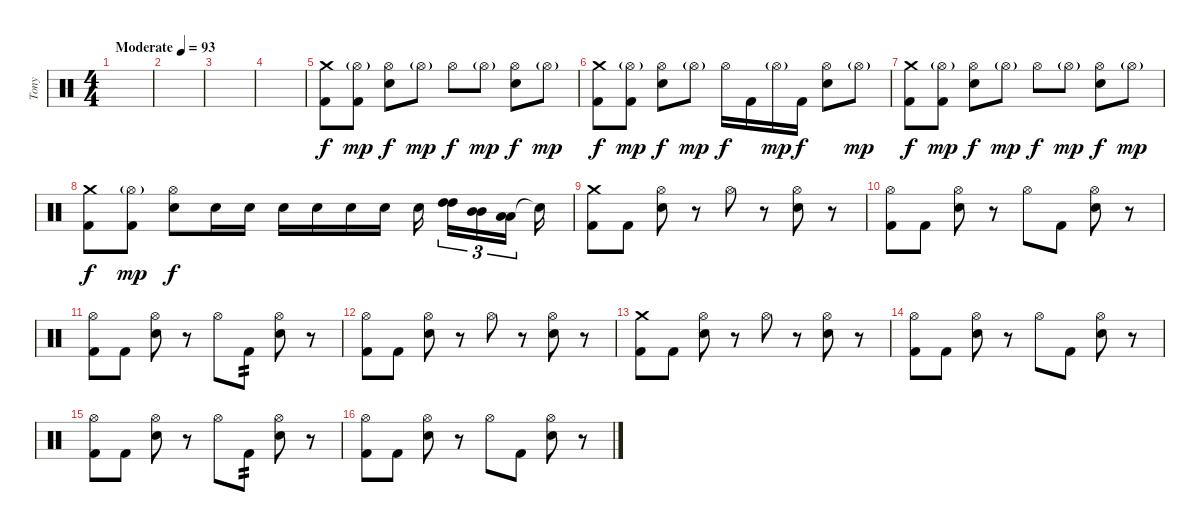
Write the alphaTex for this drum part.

\track ("Tony" "Tony") {instrument percussion}
\staff {score}
\articulation defaults
\ts (4 4)
\tempo (93 "Moderate")
\clef neutral
\ks c
|
|
|
|
("Crash medium (hit)" "Kick (hit) 2").8 ("Hi-Hat (open)"{g} "Kick (hit) 2").8{dy mp} ("Hi-Hat (open)" "Electric Snare (hit)").8{dy f} "Hi-Hat (open)"{g}.8{dy mp} "Hi-Hat (open)".8{dy f} "Hi-Hat (open)"{g}.8{dy mp} ("Hi-Hat (open)" "Electric Snare (hit)").8{dy f} "Hi-Hat (open)"{g}.8{dy mp} |
("Crash medium (hit)" "Kick (hit) 2").8{dy f} ("Hi-Hat (open)"{g} "Kick (hit) 2").8{dy mp} ("Hi-Hat (open)" "Electric Snare (hit)").8{dy f} "Hi-Hat (open)"{g}.8{dy mp} "Hi-Hat (open)".16{dy f} "Kick (hit) 2".16 "Hi-Hat (open)"{g}.16{dy mp} "Kick (hit) 2".16{dy f} ("Hi-Hat (open)" "Electric Snare (hit)").8 "Hi-Hat (open)"{g}.8{dy mp} |
("Crash medium (hit)" "Kick (hit) 2").8{dy f} ("Hi-Hat (open)"{g} "Kick (hit) 2").8{dy mp} ("Hi-Hat (open)" "Electric Snare (hit)").8{dy f} "Hi-Hat (open)"{g}.8{dy mp} "Hi-Hat (open)".8{dy f} "Hi-Hat (open)"{g}.8{dy mp} ("Hi-Hat (open)" "Electric Snare (hit)").8{dy f} "Hi-Hat (open)"{g}.8{dy mp} |
("Crash medium (hit)" "Kick (hit) 2").8{dy f} ("Hi-Hat (open)"{g} "Kick (hit) 2").8{dy mp} ("Hi-Hat (open)" "Electric Snare (hit)").8{dy f} "Electric Snare (hit)".16 "Electric Snare (hit)".16 "Electric Snare (hit)".16 "Electric Snare (hit)".16 "Electric Snare (hit)".16 "Electric Snare (hit)".16 "Electric Snare (hit)".16{beam splitsecondary} ("High Tom (hit)" "High Tom (hit)").16{tu (3 2)} ("Mid Tom (hit)" "Mid Tom (hit)").16{tu (3 2)} ("Low Tom (hit)" "Low Tom (hit)").16{tu (3 2) beam splitsecondary} "Snare (hit)"{t}.16 |
("Crash medium (hit)" "Kick (hit) 2").8 "Kick (hit) 2".8 ("Hi-Hat (open)" "Electric Snare (hit)").8 r.8 "Hi-Hat (open)".8 r.8 ("Hi-Hat (open)" "Electric Snare (hit)").8 r.8 |
("Hi-Hat (open)" "Kick (hit) 2").8 "Kick (hit) 2".8 ("Hi-Hat (open)" "Electric Snare (hit)").8 r.8 "Hi-Hat (open)".8 "Kick (hit) 2".8 ("Hi-Hat (open)" "Electric Snare (hit)").8 r.8 |
("Hi-Hat (open)" "Kick (hit) 2").8 "Kick (hit) 2".8 ("Hi-Hat (open)" "Electric Snare (hit)").8 r.8 "Hi-Hat (open)".8 "Kick (hit) 2".8{tp 2} ("Hi-Hat (open)" "Electric Snare (hit)").8 r.8 |
("Hi-Hat (open)" "Kick (hit) 2").8 "Kick (hit) 2".8 ("Hi-Hat (open)" "Electric Snare (hit)").8 r.8 "Hi-Hat (open)".8 r.8 ("Hi-Hat (open)" "Electric Snare (hit)").8 r.8 |
("Crash medium (hit)" "Kick (hit) 2").8 "Kick (hit) 2".8 ("Hi-Hat (open)" "Electric Snare (hit)").8 r.8 "Hi-Hat (open)".8 r.8 ("Hi-Hat (open)" "Electric Snare (hit)").8 r.8 |
("Hi-Hat (open)" "Kick (hit) 2").8 "Kick (hit) 2".8 ("Hi-Hat (open)" "Electric Snare (hit)").8 r.8 "Hi-Hat (open)".8 "Kick (hit) 2".8 ("Hi-Hat (open)" "Electric Snare (hit)").8 r.8 |
("Hi-Hat (open)" "Kick (hit) 2").8 "Kick (hit) 2".8 ("Hi-Hat (open)" "Electric Snare (hit)").8 r.8 "Hi-Hat (open)".8 "Kick (hit) 2".8{tp 2} ("Hi-Hat (open)" "Electric Snare (hit)").8 r.8 |
("Hi-Hat (open)" "Kick (hit) 2").8 "Kick (hit) 2".8 ("Hi-Hat (open)" "Electric Snare (hit)").8 r.8 "Hi-Hat (open)".8 "Kick (hit) 2".8 ("Hi-Hat (open)" "Electric Snare (hit)").8 r.8
